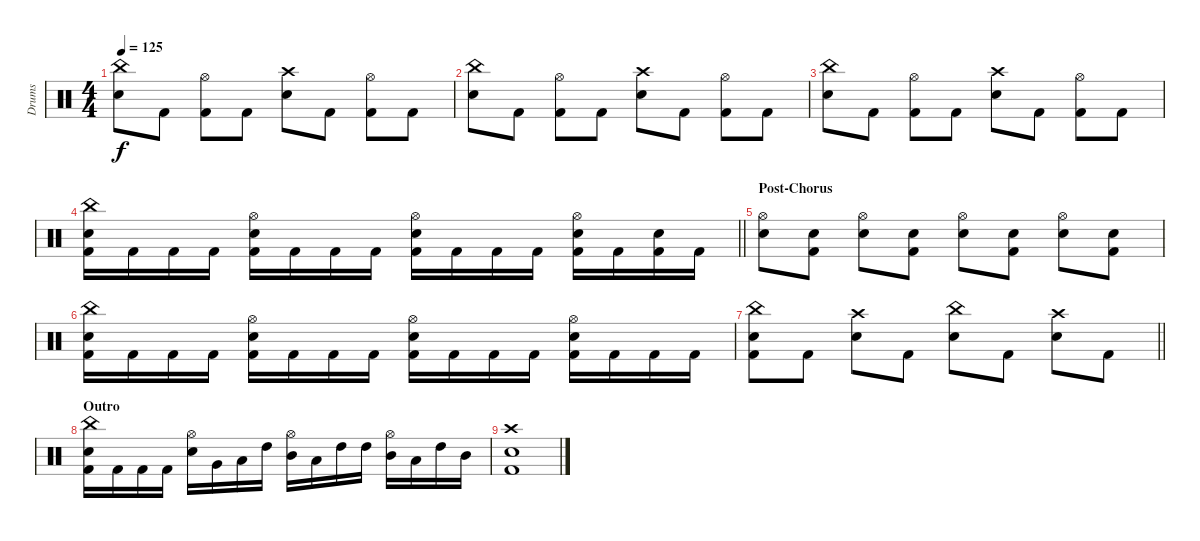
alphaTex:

\track ("Drums" "Drums") {instrument percussion}
\staff {score}
\articulation defaults
\ts (4 4)
\tempo 125
\clef neutral
\ks c
("China (hit)" "Electric Snare (hit)").8{dy f} "Kick (hit) 2".8 ("Hi-Hat (open)" "Kick (hit) 2").8 "Kick (hit) 2".8 ("Crash high (hit)" "Electric Snare (hit)").8 "Kick (hit) 2".8 ("Hi-Hat (open)" "Kick (hit) 2").8 "Kick (hit) 2".8 |
("China (hit)" "Electric Snare (hit)").8 "Kick (hit) 2".8 ("Hi-Hat (open)" "Kick (hit) 2").8 "Kick (hit) 2".8 ("Crash high (hit)" "Electric Snare (hit)").8 "Kick (hit) 2".8 ("Hi-Hat (open)" "Kick (hit) 2").8 "Kick (hit) 2".8 |
("China (hit)" "Electric Snare (hit)").8 "Kick (hit) 2".8 ("Hi-Hat (open)" "Kick (hit) 2").8 "Kick (hit) 2".8 ("Crash high (hit)" "Electric Snare (hit)").8 "Kick (hit) 2".8 ("Hi-Hat (open)" "Kick (hit) 2").8 "Kick (hit) 2".8 |
\barLineRight lightlight
("China (hit)" "Kick (hit) 2" "Electric Snare (hit)").16 "Kick (hit) 2".16 "Kick (hit) 2".16 "Kick (hit) 2".16 ("Hi-Hat (open)" "Kick (hit) 2" "Electric Snare (hit)").16 "Kick (hit) 2".16 "Kick (hit) 2".16 "Kick (hit) 2".16 ("Hi-Hat (open)" "Kick (hit) 2" "Electric Snare (hit)").16 "Kick (hit) 2".16 "Kick (hit) 2".16 "Kick (hit) 2".16 ("Hi-Hat (open)" "Kick (hit) 2" "Electric Snare (hit)").16 "Kick (hit) 2".16 ("Kick (hit) 2" "Electric Snare (hit)").16 "Kick (hit) 2".16 |
\section ("" "Post-Chorus")
("Hi-Hat (open)" "Electric Snare (hit)").8 ("Kick (hit) 2" "Electric Snare (hit)").8 ("Hi-Hat (open)" "Electric Snare (hit)").8 ("Kick (hit) 2" "Electric Snare (hit)").8 ("Hi-Hat (open)" "Electric Snare (hit)").8 ("Kick (hit) 2" "Electric Snare (hit)").8 ("Hi-Hat (open)" "Electric Snare (hit)").8 ("Kick (hit) 2" "Electric Snare (hit)").8 |
("China (hit)" "Kick (hit) 2" "Electric Snare (hit)").16 "Kick (hit) 2".16 "Kick (hit) 2".16 "Kick (hit) 2".16 ("Hi-Hat (open)" "Kick (hit) 2" "Electric Snare (hit)").16 "Kick (hit) 2".16 "Kick (hit) 2".16 "Kick (hit) 2".16 ("Hi-Hat (open)" "Kick (hit) 2" "Electric Snare (hit)").16 "Kick (hit) 2".16 "Kick (hit) 2".16 "Kick (hit) 2".16 ("Hi-Hat (open)" "Kick (hit) 2" "Electric Snare (hit)").16 "Kick (hit) 2".16 "Kick (hit) 2".16 "Kick (hit) 2".16 |
\barLineRight lightlight
("China (hit)" "Kick (hit) 2" "Electric Snare (hit)").8 "Kick (hit) 2".8 ("Crash high (hit)" "Electric Snare (hit)").8 "Kick (hit) 2".8 ("China (hit)" "Electric Snare (hit)").8 "Kick (hit) 2".8 ("Crash high (hit)" "Electric Snare (hit)").8 "Kick (hit) 2".8 |
\section ("" "Outro")
("China (hit)" "Kick (hit) 2" "Electric Snare (hit)").16 "Kick (hit) 2".16 "Kick (hit) 2".16 "Kick (hit) 2".16 ("Hi-Hat (open)" "Electric Snare (hit)").16 "Very Low Tom (hit)".16 "Low Tom (hit)".16 "High Tom (hit)".16 ("Hi-Hat (open)" "Mid Tom (hit)").16 "Low Tom (hit)".16 "High Tom (hit)".16 "High Tom (hit)".16 ("Hi-Hat (open)" "Mid Tom (hit)").16 "Low Tom (hit)".16 "High Tom (hit)".16 "Mid Tom (hit)".16 |
("Crash high (hit)" "Kick (hit) 2" "Electric Snare (hit)").1
